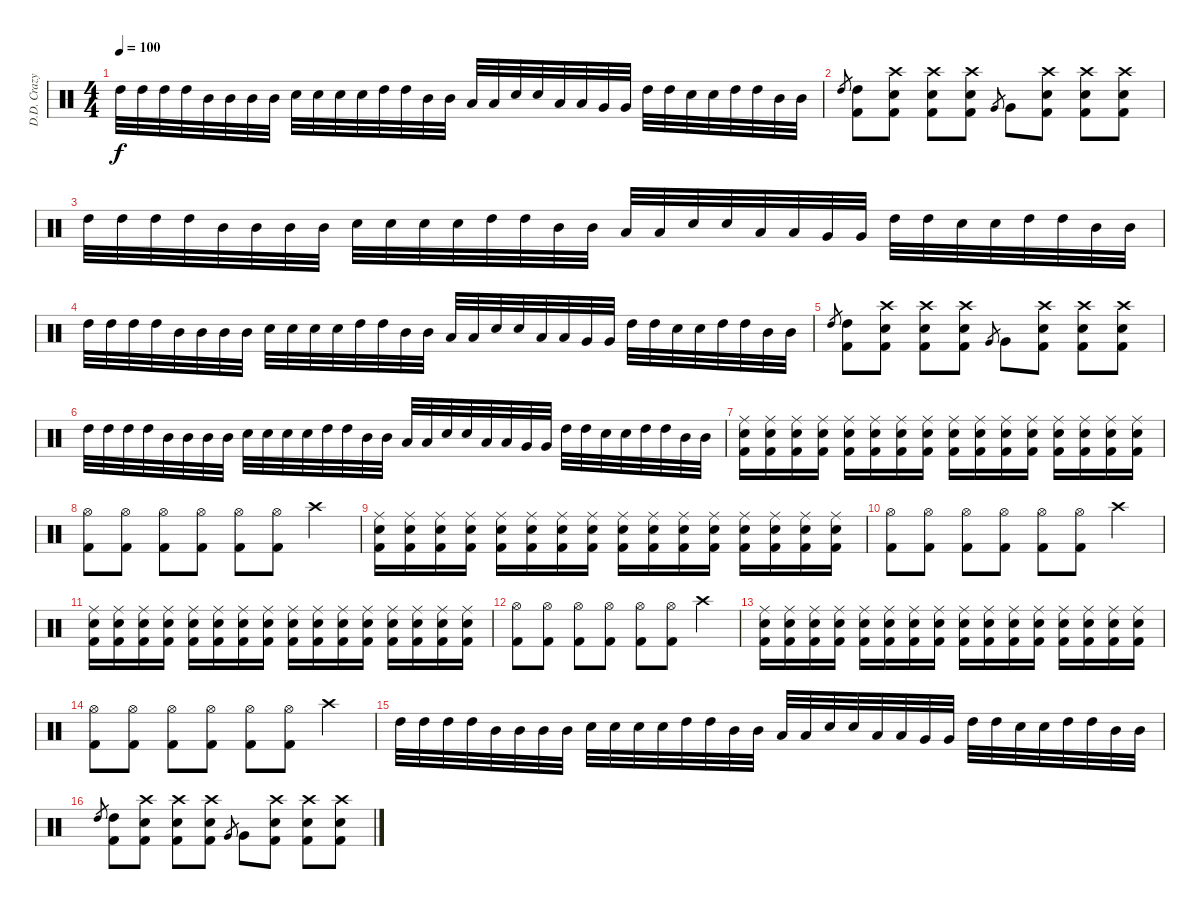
\track ("D.D. Crazy " "D.D. Crazy") {instrument percussion}
\staff {score}
\articulation defaults
\ts (4 4)
\tempo 100
\clef neutral
\ks c "High Tom (hit)".32{dy f} "High Tom (hit)".32 "High Tom (hit)".32 "High Tom (hit)".32 "Mid Tom (hit)".32 "Mid Tom (hit)".32 "Mid Tom (hit)".32 "Mid Tom (hit)".32 "Snare (hit) 2".32 "Snare (hit) 2".32 "Snare (hit) 2".32 "Snare (hit) 2".32 "High Tom (hit)".32 "High Tom (hit)".32 "Mid Tom (hit)".32 "Mid Tom (hit)".32 "Low Tom (hit)".32 "Low Tom (hit)".32 "Snare (hit) 2".32 "Snare (hit) 2".32 "Low Tom (hit)".32 "Low Tom (hit)".32 "Very Low Tom (hit)".32 "Very Low Tom (hit)".32 "High Tom (hit)".32 "High Tom (hit)".32 "Snare (hit) 2".32 "Snare (hit) 2".32 "High Tom (hit)".32 "High Tom (hit)".32 "Mid Tom (hit)".32 "Mid Tom (hit)".32
|
"High Tom (hit)".8{gr} ("High Tom (hit)" "Kick (hit) 2").8 ("Crash high (hit)" "Snare (hit) 2" "Kick (hit) 2").8 ("Crash high (hit)" "Snare (hit) 2" "Kick (hit) 2").8 ("Crash high (hit)" "Snare (hit) 2" "Kick (hit) 2").8 "Very Low Tom (hit)".8{gr} "Very Low Tom (hit)".8 ("Crash high (hit)" "Snare (hit) 2" "Kick (hit) 2").8 ("Crash high (hit)" "Snare (hit) 2" "Kick (hit) 2").8 ("Crash high (hit)" "Snare (hit) 2" "Kick (hit) 2").8 |
"High Tom (hit)".32 "High Tom (hit)".32 "High Tom (hit)".32 "High Tom (hit)".32 "Mid Tom (hit)".32 "Mid Tom (hit)".32 "Mid Tom (hit)".32 "Mid Tom (hit)".32 "Snare (hit) 2".32 "Snare (hit) 2".32 "Snare (hit) 2".32 "Snare (hit) 2".32 "High Tom (hit)".32 "High Tom (hit)".32 "Mid Tom (hit)".32 "Mid Tom (hit)".32 "Low Tom (hit)".32 "Low Tom (hit)".32 "Snare (hit) 2".32 "Snare (hit) 2".32 "Low Tom (hit)".32 "Low Tom (hit)".32 "Very Low Tom (hit)".32 "Very Low Tom (hit)".32 "High Tom (hit)".32 "High Tom (hit)".32 "Snare (hit) 2".32 "Snare (hit) 2".32 "High Tom (hit)".32 "High Tom (hit)".32 "Mid Tom (hit)".32 "Mid Tom (hit)".32 |
"High Tom (hit)".32 "High Tom (hit)".32 "High Tom (hit)".32 "High Tom (hit)".32 "Mid Tom (hit)".32 "Mid Tom (hit)".32 "Mid Tom (hit)".32 "Mid Tom (hit)".32 "Snare (hit) 2".32 "Snare (hit) 2".32 "Snare (hit) 2".32 "Snare (hit) 2".32 "High Tom (hit)".32 "High Tom (hit)".32 "Mid Tom (hit)".32 "Mid Tom (hit)".32 "Low Tom (hit)".32 "Low Tom (hit)".32 "Snare (hit) 2".32 "Snare (hit) 2".32 "Low Tom (hit)".32 "Low Tom (hit)".32 "Very Low Tom (hit)".32 "Very Low Tom (hit)".32 "High Tom (hit)".32 "High Tom (hit)".32 "Snare (hit) 2".32 "Snare (hit) 2".32 "High Tom (hit)".32 "High Tom (hit)".32 "Mid Tom (hit)".32 "Mid Tom (hit)".32 |
"High Tom (hit)".8{gr} ("High Tom (hit)" "Kick (hit) 2").8 ("Crash high (hit)" "Snare (hit) 2" "Kick (hit) 2").8 ("Crash high (hit)" "Snare (hit) 2" "Kick (hit) 2").8 ("Crash high (hit)" "Snare (hit) 2" "Kick (hit) 2").8 "Very Low Tom (hit)".8{gr} "Very Low Tom (hit)".8 ("Crash high (hit)" "Snare (hit) 2" "Kick (hit) 2").8 ("Crash high (hit)" "Snare (hit) 2" "Kick (hit) 2").8 ("Crash high (hit)" "Snare (hit) 2" "Kick (hit) 2").8 |
"High Tom (hit)".32 "High Tom (hit)".32 "High Tom (hit)".32 "High Tom (hit)".32 "Mid Tom (hit)".32 "Mid Tom (hit)".32 "Mid Tom (hit)".32 "Mid Tom (hit)".32 "Snare (hit) 2".32 "Snare (hit) 2".32 "Snare (hit) 2".32 "Snare (hit) 2".32 "High Tom (hit)".32 "High Tom (hit)".32 "Mid Tom (hit)".32 "Mid Tom (hit)".32 "Low Tom (hit)".32 "Low Tom (hit)".32 "Snare (hit) 2".32 "Snare (hit) 2".32 "Low Tom (hit)".32 "Low Tom (hit)".32 "Very Low Tom (hit)".32 "Very Low Tom (hit)".32 "High Tom (hit)".32 "High Tom (hit)".32 "Snare (hit) 2".32 "Snare (hit) 2".32 "High Tom (hit)".32 "High Tom (hit)".32 "Mid Tom (hit)".32 "Mid Tom (hit)".32 |
("Ride (middle)" "Snare (hit) 2" "Kick (hit) 2").16 ("Ride (middle)" "Snare (hit) 2" "Kick (hit) 2").16 ("Ride (middle)" "Snare (hit) 2" "Kick (hit) 2").16 ("Ride (middle)" "Snare (hit) 2" "Kick (hit) 2").16 ("Ride (middle)" "Snare (hit) 2" "Kick (hit) 2").16 ("Ride (middle)" "Snare (hit) 2" "Kick (hit) 2").16 ("Ride (middle)" "Snare (hit) 2" "Kick (hit) 2").16 ("Ride (middle)" "Snare (hit) 2" "Kick (hit) 2").16 ("Ride (middle)" "Snare (hit) 2" "Kick (hit) 2").16 ("Ride (middle)" "Snare (hit) 2" "Kick (hit) 2").16 ("Ride (middle)" "Snare (hit) 2" "Kick (hit) 2").16 ("Ride (middle)" "Snare (hit) 2" "Kick (hit) 2").16 ("Ride (middle)" "Snare (hit) 2" "Kick (hit) 2").16 ("Ride (middle)" "Snare (hit) 2" "Kick (hit) 2").16 ("Ride (middle)" "Snare (hit) 2" "Kick (hit) 2").16 ("Ride (middle)" "Snare (hit) 2" "Kick (hit) 2").16 |
("Hi-Hat (open)" "Kick (hit) 2").8 ("Hi-Hat (open)" "Kick (hit) 2").8 ("Hi-Hat (open)" "Kick (hit) 2").8 ("Hi-Hat (open)" "Kick (hit) 2").8 ("Hi-Hat (open)" "Kick (hit) 2").8 ("Hi-Hat (open)" "Kick (hit) 2").8 "Crash high (hit)".4 |
("Ride (middle)" "Snare (hit) 2" "Kick (hit) 2").16 ("Ride (middle)" "Snare (hit) 2" "Kick (hit) 2").16 ("Ride (middle)" "Snare (hit) 2" "Kick (hit) 2").16 ("Ride (middle)" "Snare (hit) 2" "Kick (hit) 2").16 ("Ride (middle)" "Snare (hit) 2" "Kick (hit) 2").16 ("Ride (middle)" "Snare (hit) 2" "Kick (hit) 2").16 ("Ride (middle)" "Snare (hit) 2" "Kick (hit) 2").16 ("Ride (middle)" "Snare (hit) 2" "Kick (hit) 2").16 ("Ride (middle)" "Snare (hit) 2" "Kick (hit) 2").16 ("Ride (middle)" "Snare (hit) 2" "Kick (hit) 2").16 ("Ride (middle)" "Snare (hit) 2" "Kick (hit) 2").16 ("Ride (middle)" "Snare (hit) 2" "Kick (hit) 2").16 ("Ride (middle)" "Snare (hit) 2" "Kick (hit) 2").16 ("Ride (middle)" "Snare (hit) 2" "Kick (hit) 2").16 ("Ride (middle)" "Snare (hit) 2" "Kick (hit) 2").16 ("Ride (middle)" "Snare (hit) 2" "Kick (hit) 2").16 |
("Hi-Hat (open)" "Kick (hit) 2").8 ("Hi-Hat (open)" "Kick (hit) 2").8 ("Hi-Hat (open)" "Kick (hit) 2").8 ("Hi-Hat (open)" "Kick (hit) 2").8 ("Hi-Hat (open)" "Kick (hit) 2").8 ("Hi-Hat (open)" "Kick (hit) 2").8 "Crash high (hit)".4 |
("Ride (middle)" "Snare (hit) 2" "Kick (hit) 2").16 ("Ride (middle)" "Snare (hit) 2" "Kick (hit) 2").16 ("Ride (middle)" "Snare (hit) 2" "Kick (hit) 2").16 ("Ride (middle)" "Snare (hit) 2" "Kick (hit) 2").16 ("Ride (middle)" "Snare (hit) 2" "Kick (hit) 2").16 ("Ride (middle)" "Snare (hit) 2" "Kick (hit) 2").16 ("Ride (middle)" "Snare (hit) 2" "Kick (hit) 2").16 ("Ride (middle)" "Snare (hit) 2" "Kick (hit) 2").16 ("Ride (middle)" "Snare (hit) 2" "Kick (hit) 2").16 ("Ride (middle)" "Snare (hit) 2" "Kick (hit) 2").16 ("Ride (middle)" "Snare (hit) 2" "Kick (hit) 2").16 ("Ride (middle)" "Snare (hit) 2" "Kick (hit) 2").16 ("Ride (middle)" "Snare (hit) 2" "Kick (hit) 2").16 ("Ride (middle)" "Snare (hit) 2" "Kick (hit) 2").16 ("Ride (middle)" "Snare (hit) 2" "Kick (hit) 2").16 ("Ride (middle)" "Snare (hit) 2" "Kick (hit) 2").16 |
("Hi-Hat (open)" "Kick (hit) 2").8 ("Hi-Hat (open)" "Kick (hit) 2").8 ("Hi-Hat (open)" "Kick (hit) 2").8 ("Hi-Hat (open)" "Kick (hit) 2").8 ("Hi-Hat (open)" "Kick (hit) 2").8 ("Hi-Hat (open)" "Kick (hit) 2").8 "Crash high (hit)".4 |
("Ride (middle)" "Snare (hit) 2" "Kick (hit) 2").16 ("Ride (middle)" "Snare (hit) 2" "Kick (hit) 2").16 ("Ride (middle)" "Snare (hit) 2" "Kick (hit) 2").16 ("Ride (middle)" "Snare (hit) 2" "Kick (hit) 2").16 ("Ride (middle)" "Snare (hit) 2" "Kick (hit) 2").16 ("Ride (middle)" "Snare (hit) 2" "Kick (hit) 2").16 ("Ride (middle)" "Snare (hit) 2" "Kick (hit) 2").16 ("Ride (middle)" "Snare (hit) 2" "Kick (hit) 2").16 ("Ride (middle)" "Snare (hit) 2" "Kick (hit) 2").16 ("Ride (middle)" "Snare (hit) 2" "Kick (hit) 2").16 ("Ride (middle)" "Snare (hit) 2" "Kick (hit) 2").16 ("Ride (middle)" "Snare (hit) 2" "Kick (hit) 2").16 ("Ride (middle)" "Snare (hit) 2" "Kick (hit) 2").16 ("Ride (middle)" "Snare (hit) 2" "Kick (hit) 2").16 ("Ride (middle)" "Snare (hit) 2" "Kick (hit) 2").16 ("Ride (middle)" "Snare (hit) 2" "Kick (hit) 2").16 |
("Hi-Hat (open)" "Kick (hit) 2").8 ("Hi-Hat (open)" "Kick (hit) 2").8 ("Hi-Hat (open)" "Kick (hit) 2").8 ("Hi-Hat (open)" "Kick (hit) 2").8 ("Hi-Hat (open)" "Kick (hit) 2").8 ("Hi-Hat (open)" "Kick (hit) 2").8 "Crash high (hit)".4 |
"High Tom (hit)".32 "High Tom (hit)".32 "High Tom (hit)".32 "High Tom (hit)".32 "Mid Tom (hit)".32 "Mid Tom (hit)".32 "Mid Tom (hit)".32 "Mid Tom (hit)".32 "Snare (hit) 2".32 "Snare (hit) 2".32 "Snare (hit) 2".32 "Snare (hit) 2".32 "High Tom (hit)".32 "High Tom (hit)".32 "Mid Tom (hit)".32 "Mid Tom (hit)".32 "Low Tom (hit)".32 "Low Tom (hit)".32 "Snare (hit) 2".32 "Snare (hit) 2".32 "Low Tom (hit)".32 "Low Tom (hit)".32 "Very Low Tom (hit)".32 "Very Low Tom (hit)".32 "High Tom (hit)".32 "High Tom (hit)".32 "Snare (hit) 2".32 "Snare (hit) 2".32 "High Tom (hit)".32 "High Tom (hit)".32 "Mid Tom (hit)".32 "Mid Tom (hit)".32 |
"High Tom (hit)".8{gr} ("High Tom (hit)" "Kick (hit) 2").8 ("Crash high (hit)" "Snare (hit) 2" "Kick (hit) 2").8 ("Crash high (hit)" "Snare (hit) 2" "Kick (hit) 2").8 ("Crash high (hit)" "Snare (hit) 2" "Kick (hit) 2").8 "Very Low Tom (hit)".8{gr} "Very Low Tom (hit)".8 ("Crash high (hit)" "Snare (hit) 2" "Kick (hit) 2").8 ("Crash high (hit)" "Snare (hit) 2" "Kick (hit) 2").8 ("Crash high (hit)" "Snare (hit) 2" "Kick (hit) 2").8
